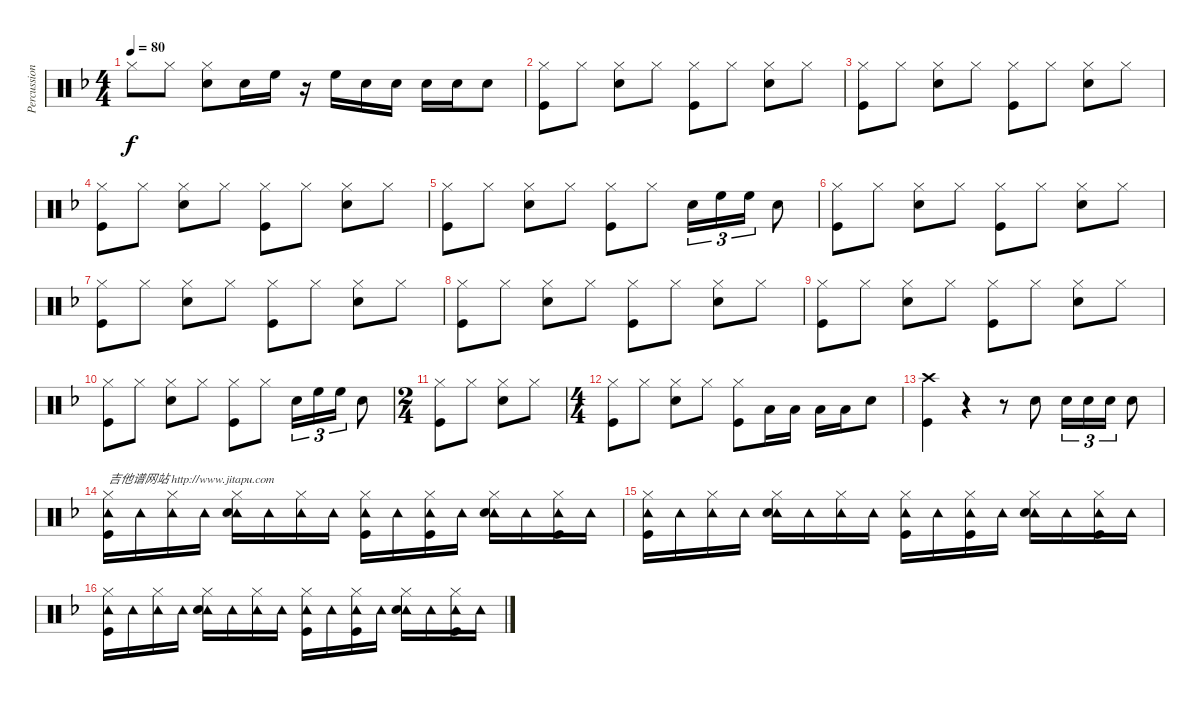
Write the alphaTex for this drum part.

\track ("Percussion" "Percussion") {instrument percussion}
\staff {score}
\articulation defaults
\ts (4 4)
\tempo 80
\clef neutral
\ks f "Hi-Hat (closed)".8{dy f} "Hi-Hat (closed)".8
("Hi-Hat (closed)" "Snare (hit) 2").8 "Snare (hit) 2".16 "High Floor Tom (hit)".16 r.16 "High Floor Tom (hit)".16 "Snare (hit) 2".16 "Snare (hit) 2".16 "Snare (hit) 2".16 "Snare (hit) 2".16 "Snare (hit) 2".8 |
("Hi-Hat (closed)" "Kick (hit)").8 "Hi-Hat (closed)".8 ("Hi-Hat (closed)" "Snare (hit) 2").8 "Hi-Hat (closed)".8 ("Hi-Hat (closed)" "Kick (hit)").8 "Hi-Hat (closed)".8 ("Hi-Hat (closed)" "Snare (hit) 2").8 "Hi-Hat (closed)".8 |
("Hi-Hat (closed)" "Kick (hit)").8 "Hi-Hat (closed)".8 ("Hi-Hat (closed)" "Snare (hit) 2").8 "Hi-Hat (closed)".8 ("Hi-Hat (closed)" "Kick (hit)").8 "Hi-Hat (closed)".8 ("Hi-Hat (closed)" "Snare (hit) 2").8 "Hi-Hat (closed)".8 |
("Hi-Hat (closed)" "Kick (hit)").8 "Hi-Hat (closed)".8 ("Hi-Hat (closed)" "Snare (hit) 2").8 "Hi-Hat (closed)".8 ("Hi-Hat (closed)" "Kick (hit)").8 "Hi-Hat (closed)".8 ("Hi-Hat (closed)" "Snare (hit) 2").8 "Hi-Hat (closed)".8 |
("Hi-Hat (closed)" "Kick (hit)").8 "Hi-Hat (closed)".8 ("Hi-Hat (closed)" "Snare (hit) 2").8 "Hi-Hat (closed)".8 ("Hi-Hat (closed)" "Kick (hit)").8 "Hi-Hat (closed)".8 "Snare (hit) 2".16{tu (3 2)} "High Floor Tom (hit)".16{tu (3 2)} "High Floor Tom (hit)".16{tu (3 2)} "Snare (hit) 2".8 |
("Hi-Hat (closed)" "Kick (hit)").8 "Hi-Hat (closed)".8 ("Hi-Hat (closed)" "Snare (hit) 2").8 "Hi-Hat (closed)".8 ("Hi-Hat (closed)" "Kick (hit)").8 "Hi-Hat (closed)".8 ("Hi-Hat (closed)" "Snare (hit) 2").8 "Hi-Hat (closed)".8 |
("Hi-Hat (closed)" "Kick (hit)").8 "Hi-Hat (closed)".8 ("Hi-Hat (closed)" "Snare (hit) 2").8 "Hi-Hat (closed)".8 ("Hi-Hat (closed)" "Kick (hit)").8 "Hi-Hat (closed)".8 ("Hi-Hat (closed)" "Snare (hit) 2").8 "Hi-Hat (closed)".8 |
("Hi-Hat (closed)" "Kick (hit)").8 "Hi-Hat (closed)".8 ("Hi-Hat (closed)" "Snare (hit) 2").8 "Hi-Hat (closed)".8 ("Hi-Hat (closed)" "Kick (hit)").8 "Hi-Hat (closed)".8 ("Hi-Hat (closed)" "Snare (hit) 2").8 "Hi-Hat (closed)".8 |
("Hi-Hat (closed)" "Kick (hit)").8 "Hi-Hat (closed)".8 ("Hi-Hat (closed)" "Snare (hit) 2").8 "Hi-Hat (closed)".8 ("Hi-Hat (closed)" "Kick (hit)").8 "Hi-Hat (closed)".8 ("Hi-Hat (closed)" "Snare (hit) 2").8 "Hi-Hat (closed)".8 |
("Hi-Hat (closed)" "Kick (hit)").8 "Hi-Hat (closed)".8 ("Hi-Hat (closed)" "Snare (hit) 2").8 "Hi-Hat (closed)".8 ("Hi-Hat (closed)" "Kick (hit)").8 "Hi-Hat (closed)".8 "Snare (hit) 2".16{tu (3 2)} "High Floor Tom (hit)".16{tu (3 2)} "High Floor Tom (hit)".16{tu (3 2)} "Snare (hit) 2".8 |
\ts (2 4)
("Hi-Hat (closed)" "Kick (hit)").8 "Hi-Hat (closed)".8 ("Hi-Hat (closed)" "Snare (hit) 2").8 "Hi-Hat (closed)".8 |
\ts (4 4)
("Hi-Hat (closed)" "Kick (hit)").8 "Hi-Hat (closed)".8 ("Hi-Hat (closed)" "Snare (hit) 2").8 "Hi-Hat (closed)".8 ("Hi-Hat (closed)" "Kick (hit)").8 "Low Tom (hit)".16 "Low Tom (hit)".16 "Low Tom (hit)".16 "Low Tom (hit)".16 "Snare (hit) 2".8 |
("Crash high (hit)" "Kick (hit)").4 r.4 r.8 "Snare (hit) 2".8 "Snare (hit) 2".16{tu (3 2)} "Snare (hit) 2".16{tu (3 2)} "Snare (hit) 2".16{tu (3 2)} "Snare (hit) 2".8 |
("Hi-Hat (closed)" "Tambourine (hit)" "Kick (hit)").16{txt "吉他谱网站 http://www.jitapu.com"} "Tambourine (hit)".16 ("Hi-Hat (closed)" "Tambourine (hit)").16 "Tambourine (hit)".16 ("Hi-Hat (closed)" "Tambourine (hit)" "Snare (hit) 2").16 "Tambourine (hit)".16 ("Hi-Hat (closed)" "Tambourine (hit)").16 "Tambourine (hit)".16 ("Hi-Hat (closed)" "Tambourine (hit)" "Kick (hit)").16 "Tambourine (hit)".16 ("Hi-Hat (closed)" "Tambourine (hit)" "Kick (hit)").16 "Tambourine (hit)".16 ("Hi-Hat (closed)" "Tambourine (hit)" "Snare (hit) 2").16 "Tambourine (hit)".16 ("Hi-Hat (closed)" "Tambourine (hit)" "Kick (hit)").16 "Tambourine (hit)".16 |
("Hi-Hat (closed)" "Tambourine (hit)" "Kick (hit)").16 "Tambourine (hit)".16 ("Hi-Hat (closed)" "Tambourine (hit)").16 "Tambourine (hit)".16 ("Hi-Hat (closed)" "Tambourine (hit)" "Snare (hit) 2").16 "Tambourine (hit)".16 ("Hi-Hat (closed)" "Tambourine (hit)").16 "Tambourine (hit)".16 ("Hi-Hat (closed)" "Tambourine (hit)" "Kick (hit)").16 "Tambourine (hit)".16 ("Hi-Hat (closed)" "Tambourine (hit)" "Kick (hit)").16 "Tambourine (hit)".16 ("Hi-Hat (closed)" "Tambourine (hit)" "Snare (hit) 2").16 "Tambourine (hit)".16 ("Hi-Hat (closed)" "Tambourine (hit)" "Kick (hit)").16 "Tambourine (hit)".16 |
("Hi-Hat (closed)" "Tambourine (hit)" "Kick (hit)").16 "Tambourine (hit)".16 ("Hi-Hat (closed)" "Tambourine (hit)").16 "Tambourine (hit)".16 ("Hi-Hat (closed)" "Tambourine (hit)" "Snare (hit) 2").16 "Tambourine (hit)".16 ("Hi-Hat (closed)" "Tambourine (hit)").16 "Tambourine (hit)".16 ("Hi-Hat (closed)" "Tambourine (hit)" "Kick (hit)").16 "Tambourine (hit)".16 ("Hi-Hat (closed)" "Tambourine (hit)" "Kick (hit)").16 "Tambourine (hit)".16 ("Hi-Hat (closed)" "Tambourine (hit)" "Snare (hit) 2").16 "Tambourine (hit)".16 ("Hi-Hat (closed)" "Tambourine (hit)" "Kick (hit)").16 "Tambourine (hit)".16
